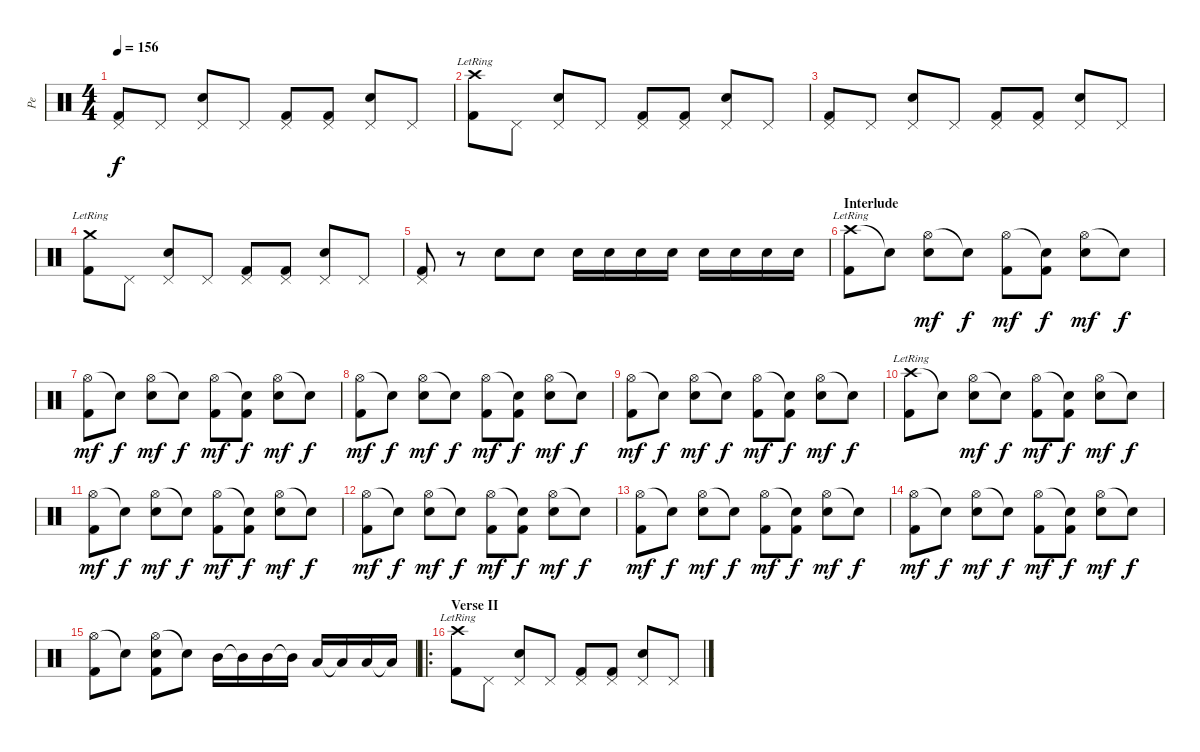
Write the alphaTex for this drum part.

\track ("Pe" "Pe") {instrument percussion}
\staff {score}
\articulation defaults
\ts (4 4)
\tempo 156
\clef neutral
\ks c
("Pedal Hi-Hat (hit)" "Kick (hit) 2").8{dy f} "Pedal Hi-Hat (hit)".8 ("Pedal Hi-Hat (hit)" "Electric Snare (hit)").8 "Pedal Hi-Hat (hit)".8 ("Pedal Hi-Hat (hit)" "Kick (hit) 2").8 ("Pedal Hi-Hat (hit)" "Kick (hit) 2").8 ("Pedal Hi-Hat (hit)" "Electric Snare (hit)").8 "Pedal Hi-Hat (hit)".8 |
("Crash high (hit)"{lr} "Kick (hit) 2").8 "Pedal Hi-Hat (hit)".8 ("Pedal Hi-Hat (hit)" "Electric Snare (hit)").8 "Pedal Hi-Hat (hit)".8 ("Pedal Hi-Hat (hit)" "Kick (hit) 2").8 ("Pedal Hi-Hat (hit)" "Kick (hit) 2").8 ("Pedal Hi-Hat (hit)" "Electric Snare (hit)").8 "Pedal Hi-Hat (hit)".8 |
("Pedal Hi-Hat (hit)" "Kick (hit) 2").8 "Pedal Hi-Hat (hit)".8 ("Pedal Hi-Hat (hit)" "Electric Snare (hit)").8 "Pedal Hi-Hat (hit)".8 ("Pedal Hi-Hat (hit)" "Kick (hit) 2").8 ("Pedal Hi-Hat (hit)" "Kick (hit) 2").8 ("Pedal Hi-Hat (hit)" "Electric Snare (hit)").8 "Pedal Hi-Hat (hit)".8 |
("Crash medium (hit)"{lr} "Kick (hit) 2").8 "Pedal Hi-Hat (hit)".8 ("Pedal Hi-Hat (hit)" "Electric Snare (hit)").8 "Pedal Hi-Hat (hit)".8 ("Pedal Hi-Hat (hit)" "Kick (hit) 2").8 ("Pedal Hi-Hat (hit)" "Kick (hit) 2").8 ("Pedal Hi-Hat (hit)" "Electric Snare (hit)").8 "Pedal Hi-Hat (hit)".8 |
("Pedal Hi-Hat (hit)" "Kick (hit) 2").8 r.8 "Electric Snare (hit)".8 "Electric Snare (hit)".8 "Electric Snare (hit)".16 "Electric Snare (hit)".16 "Electric Snare (hit)".16 "Electric Snare (hit)".16 "Electric Snare (hit)".16 "Electric Snare (hit)".16 "Electric Snare (hit)".16 "Electric Snare (hit)".16 |
\section ("" "Interlude")
("Crash high (hit)"{lr} "Kick (hit) 2").8 "Snare (hit)"{t}.8 ("Hi-Hat (open)" "Electric Snare (hit)").8{dy mf} "Snare (hit)"{t}.8{dy f} ("Hi-Hat (open)" "Kick (hit) 2").8{dy mf} ("Snare (hit)"{t} "Kick (hit) 2").8{dy f} ("Hi-Hat (open)" "Electric Snare (hit)").8{dy mf} "Snare (hit)"{t}.8{dy f} |
("Hi-Hat (open)" "Kick (hit) 2").8{dy mf} "Snare (hit)"{t}.8{dy f} ("Hi-Hat (open)" "Electric Snare (hit)").8{dy mf} "Snare (hit)"{t}.8{dy f} ("Hi-Hat (open)" "Kick (hit) 2").8{dy mf} ("Snare (hit)"{t} "Kick (hit) 2").8{dy f} ("Hi-Hat (open)" "Electric Snare (hit)").8{dy mf} "Snare (hit)"{t}.8{dy f} |
("Hi-Hat (open)" "Kick (hit) 2").8{dy mf} "Snare (hit)"{t}.8{dy f} ("Hi-Hat (open)" "Electric Snare (hit)").8{dy mf} "Snare (hit)"{t}.8{dy f} ("Hi-Hat (open)" "Kick (hit) 2").8{dy mf} ("Snare (hit)"{t} "Kick (hit) 2").8{dy f} ("Hi-Hat (open)" "Electric Snare (hit)").8{dy mf} "Snare (hit)"{t}.8{dy f} |
("Hi-Hat (open)" "Kick (hit) 2").8{dy mf} "Snare (hit)"{t}.8{dy f} ("Hi-Hat (open)" "Electric Snare (hit)").8{dy mf} "Snare (hit)"{t}.8{dy f} ("Hi-Hat (open)" "Kick (hit) 2").8{dy mf} ("Snare (hit)"{t} "Kick (hit) 2").8{dy f} ("Hi-Hat (open)" "Electric Snare (hit)").8{dy mf} "Snare (hit)"{t}.8{dy f} |
("Crash high (hit)"{lr} "Kick (hit) 2").8 "Snare (hit)"{t}.8 ("Hi-Hat (open)" "Electric Snare (hit)").8{dy mf} "Snare (hit)"{t}.8{dy f} ("Hi-Hat (open)" "Kick (hit) 2").8{dy mf} ("Snare (hit)"{t} "Kick (hit) 2").8{dy f} ("Hi-Hat (open)" "Electric Snare (hit)").8{dy mf} "Snare (hit)"{t}.8{dy f} |
("Hi-Hat (open)" "Kick (hit) 2").8{dy mf} "Snare (hit)"{t}.8{dy f} ("Hi-Hat (open)" "Electric Snare (hit)").8{dy mf} "Snare (hit)"{t}.8{dy f} ("Hi-Hat (open)" "Kick (hit) 2").8{dy mf} ("Snare (hit)"{t} "Kick (hit) 2").8{dy f} ("Hi-Hat (open)" "Electric Snare (hit)").8{dy mf} "Snare (hit)"{t}.8{dy f} |
("Hi-Hat (open)" "Kick (hit) 2").8{dy mf} "Snare (hit)"{t}.8{dy f} ("Hi-Hat (open)" "Electric Snare (hit)").8{dy mf} "Snare (hit)"{t}.8{dy f} ("Hi-Hat (open)" "Kick (hit) 2").8{dy mf} ("Snare (hit)"{t} "Kick (hit) 2").8{dy f} ("Hi-Hat (open)" "Electric Snare (hit)").8{dy mf} "Snare (hit)"{t}.8{dy f} |
("Hi-Hat (open)" "Kick (hit) 2").8{dy mf} "Snare (hit)"{t}.8{dy f} ("Hi-Hat (open)" "Electric Snare (hit)").8{dy mf} "Snare (hit)"{t}.8{dy f} ("Hi-Hat (open)" "Kick (hit) 2").8{dy mf} ("Snare (hit)"{t} "Kick (hit) 2").8{dy f} ("Hi-Hat (open)" "Electric Snare (hit)").8{dy mf} "Snare (hit)"{t}.8{dy f} |
("Hi-Hat (open)" "Kick (hit) 2").8{dy mf} "Snare (hit)"{t}.8{dy f} ("Hi-Hat (open)" "Electric Snare (hit)").8{dy mf} "Snare (hit)"{t}.8{dy f} ("Hi-Hat (open)" "Kick (hit) 2").8{dy mf} ("Snare (hit)"{t} "Kick (hit) 2").8{dy f} ("Hi-Hat (open)" "Electric Snare (hit)").8{dy mf} "Snare (hit)"{t}.8{dy f} |
("Hi-Hat (open)" "Kick (hit) 2").8 "Snare (hit)"{t}.8 ("Hi-Hat (open)" "Electric Snare (hit)" "Kick (hit) 2").8 "Snare (hit)"{t}.8 "Mid Tom (hit)".16 "Mid Tom (hit)"{t}.16 "Mid Tom (hit)".16 "Mid Tom (hit)"{t}.16 "Low Tom (hit)".16 "Low Tom (hit)"{t}.16 "Low Tom (hit)".16 "Low Tom (hit)"{t}.16 |
\ro
\section ("" "Verse II")
("Crash high (hit)"{lr} "Kick (hit) 2").8 "Pedal Hi-Hat (hit)".8 ("Pedal Hi-Hat (hit)" "Electric Snare (hit)").8 "Pedal Hi-Hat (hit)".8 ("Pedal Hi-Hat (hit)" "Kick (hit) 2").8 ("Pedal Hi-Hat (hit)" "Kick (hit) 2").8 ("Pedal Hi-Hat (hit)" "Electric Snare (hit)").8 "Pedal Hi-Hat (hit)".8
